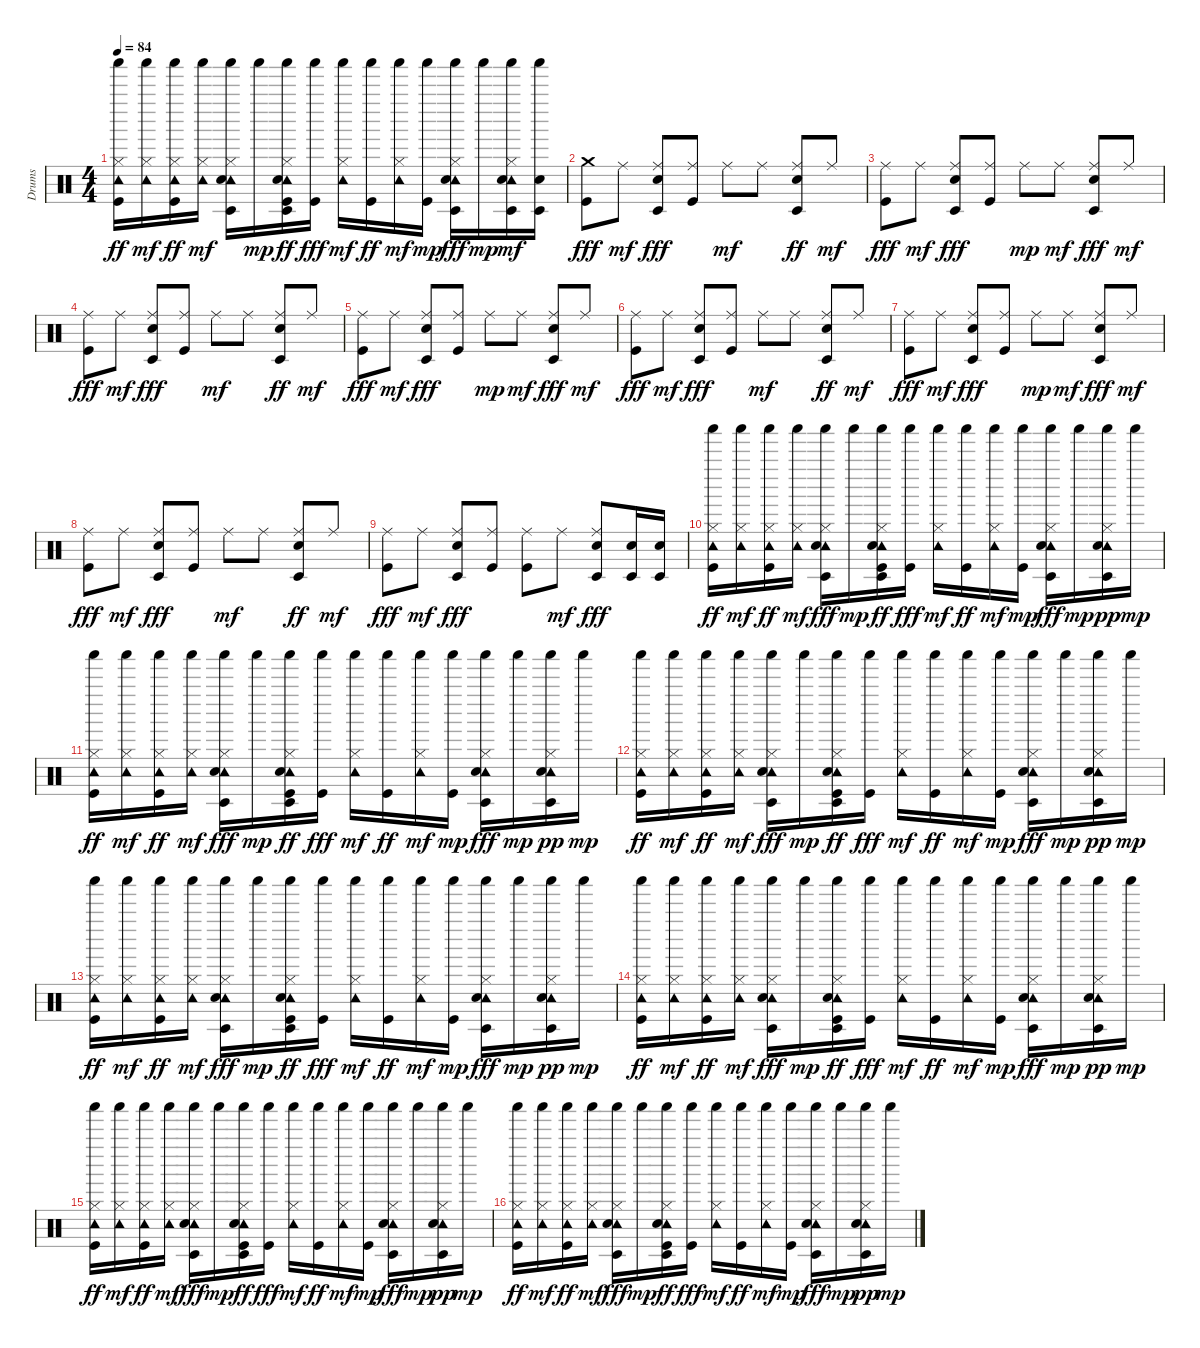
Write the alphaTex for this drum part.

\track ("Drums" "Drums") {instrument percussion}
\staff {score}
\articulation defaults
\ts (4 4)
\tempo 84
\clef neutral
\ks c
("Shaker (hit)" "Tambourine (hit)" "Hi-Hat (closed)" "Kick (hit)").16{dy ff} ("Shaker (hit)" "Tambourine (hit)" "Hi-Hat (closed)").16{dy mf} ("Shaker (hit)" "Tambourine (hit)" "Hi-Hat (closed)" "Kick (hit)").16{dy ff} ("Shaker (hit)" "Tambourine (hit)" "Hi-Hat (closed)").16{dy mf} ("Shaker (hit)" "Tambourine (hit)" "Hi-Hat (closed)" "Timbale low (hit)" "Snare (hit) 2").16 "Shaker (hit)".16{dy mp} ("Shaker (hit)" "Tambourine (hit)" "Hi-Hat (closed)" "Timbale low (hit)" "Snare (hit) 2" "Kick (hit)").16{dy ff} ("Shaker (hit)" "Kick (hit)").16{dy fff} ("Shaker (hit)" "Tambourine (hit)" "Hi-Hat (closed)").16{dy mf} ("Shaker (hit)" "Kick (hit)").16{dy ff} ("Shaker (hit)" "Tambourine (hit)" "Hi-Hat (closed)").16{dy mf} ("Shaker (hit)" "Kick (hit)").16{dy mp} ("Shaker (hit)" "Tambourine (hit)" "Hi-Hat (closed)" "Timbale low (hit)" "Snare (hit) 2").16{dy fff} "Shaker (hit)".16{dy mp} ("Shaker (hit)" "Tambourine (hit)" "Hi-Hat (closed)" "Timbale low (hit)" "Snare (hit) 2").16{dy mf} ("Shaker (hit)" "Timbale low (hit)" "Snare (hit) 2").16 |
("Crash medium (hit)" "Kick (hit)").8{dy fff} "Ride (middle)".8{dy mf} ("Ride (middle)" "Timbale low (hit)" "Snare (hit) 2").8{dy fff} ("Ride (middle)" "Kick (hit)").8 "Ride (middle)".8{dy mf} "Ride (middle)".8 ("Ride (middle)" "Timbale low (hit)" "Snare (hit) 2").8{dy ff} "Ride (middle)".8{dy mf} |
("Ride (middle)" "Kick (hit)").8{dy fff} "Ride (middle)".8{dy mf} ("Ride (middle)" "Timbale low (hit)" "Snare (hit) 2").8{dy fff} ("Ride (middle)" "Kick (hit)").8 "Ride (middle)".8{dy mp} "Ride (middle)".8{dy mf} ("Ride (middle)" "Timbale low (hit)" "Snare (hit) 2").8{dy fff} "Ride (middle)".8{dy mf} |
("Ride (middle)" "Kick (hit)").8{dy fff} "Ride (middle)".8{dy mf} ("Ride (middle)" "Timbale low (hit)" "Snare (hit) 2").8{dy fff} ("Ride (middle)" "Kick (hit)").8 "Ride (middle)".8{dy mf} "Ride (middle)".8 ("Ride (middle)" "Timbale low (hit)" "Snare (hit) 2").8{dy ff} "Ride (middle)".8{dy mf} |
("Ride (middle)" "Kick (hit)").8{dy fff} "Ride (middle)".8{dy mf} ("Ride (middle)" "Timbale low (hit)" "Snare (hit) 2").8{dy fff} ("Ride (middle)" "Kick (hit)").8 "Ride (middle)".8{dy mp} "Ride (middle)".8{dy mf} ("Ride (middle)" "Timbale low (hit)" "Snare (hit) 2").8{dy fff} "Ride (middle)".8{dy mf} |
("Ride (middle)" "Kick (hit)").8{dy fff} "Ride (middle)".8{dy mf} ("Ride (middle)" "Timbale low (hit)" "Snare (hit) 2").8{dy fff} ("Ride (middle)" "Kick (hit)").8 "Ride (middle)".8{dy mf} "Ride (middle)".8 ("Ride (middle)" "Timbale low (hit)" "Snare (hit) 2").8{dy ff} "Ride (middle)".8{dy mf} |
("Ride (middle)" "Kick (hit)").8{dy fff} "Ride (middle)".8{dy mf} ("Ride (middle)" "Timbale low (hit)" "Snare (hit) 2").8{dy fff} ("Ride (middle)" "Kick (hit)").8 "Ride (middle)".8{dy mp} "Ride (middle)".8{dy mf} ("Ride (middle)" "Timbale low (hit)" "Snare (hit) 2").8{dy fff} "Ride (middle)".8{dy mf} |
("Ride (middle)" "Kick (hit)").8{dy fff} "Ride (middle)".8{dy mf} ("Ride (middle)" "Timbale low (hit)" "Snare (hit) 2").8{dy fff} ("Ride (middle)" "Kick (hit)").8 "Ride (middle)".8{dy mf} "Ride (middle)".8 ("Ride (middle)" "Timbale low (hit)" "Snare (hit) 2").8{dy ff} "Ride (middle)".8{dy mf} |
("Ride (middle)" "Kick (hit)").8{dy fff} "Ride (middle)".8{dy mf} ("Ride (middle)" "Timbale low (hit)" "Snare (hit) 2").8{dy fff} ("Ride (middle)" "Kick (hit)").8 ("Ride (middle)" "Kick (hit)").8 "Ride (middle)".8{dy mf} ("Ride (middle)" "Timbale low (hit)" "Snare (hit) 2").8{dy fff} ("Timbale low (hit)" "Snare (hit) 2").16 ("Timbale low (hit)" "Snare (hit) 2").16 |
("Shaker (hit)" "Tambourine (hit)" "Hi-Hat (closed)" "Kick (hit)").16{dy ff} ("Shaker (hit)" "Tambourine (hit)" "Hi-Hat (closed)").16{dy mf} ("Shaker (hit)" "Tambourine (hit)" "Hi-Hat (closed)" "Kick (hit)").16{dy ff} ("Shaker (hit)" "Tambourine (hit)" "Hi-Hat (closed)").16{dy mf} ("Shaker (hit)" "Tambourine (hit)" "Hi-Hat (closed)" "Timbale low (hit)" "Snare (hit) 2").16{dy fff} "Shaker (hit)".16{dy mp} ("Shaker (hit)" "Tambourine (hit)" "Hi-Hat (closed)" "Timbale low (hit)" "Snare (hit) 2" "Kick (hit)").16{dy ff} ("Shaker (hit)" "Kick (hit)").16{dy fff} ("Shaker (hit)" "Tambourine (hit)" "Hi-Hat (closed)").16{dy mf} ("Shaker (hit)" "Kick (hit)").16{dy ff} ("Shaker (hit)" "Tambourine (hit)" "Hi-Hat (closed)").16{dy mf} ("Shaker (hit)" "Kick (hit)").16{dy mp} ("Shaker (hit)" "Tambourine (hit)" "Hi-Hat (closed)" "Timbale low (hit)" "Snare (hit) 2").16{dy fff} "Shaker (hit)".16{dy mp} ("Shaker (hit)" "Tambourine (hit)" "Hi-Hat (closed)" "Timbale low (hit)" "Snare (hit) 2").16{dy pp} "Shaker (hit)".16{dy mp} |
("Shaker (hit)" "Tambourine (hit)" "Hi-Hat (closed)" "Kick (hit)").16{dy ff} ("Shaker (hit)" "Tambourine (hit)" "Hi-Hat (closed)").16{dy mf} ("Shaker (hit)" "Tambourine (hit)" "Hi-Hat (closed)" "Kick (hit)").16{dy ff} ("Shaker (hit)" "Tambourine (hit)" "Hi-Hat (closed)").16{dy mf} ("Shaker (hit)" "Tambourine (hit)" "Hi-Hat (closed)" "Timbale low (hit)" "Snare (hit) 2").16{dy fff} "Shaker (hit)".16{dy mp} ("Shaker (hit)" "Tambourine (hit)" "Hi-Hat (closed)" "Timbale low (hit)" "Snare (hit) 2" "Kick (hit)").16{dy ff} ("Shaker (hit)" "Kick (hit)").16{dy fff} ("Shaker (hit)" "Tambourine (hit)" "Hi-Hat (closed)").16{dy mf} ("Shaker (hit)" "Kick (hit)").16{dy ff} ("Shaker (hit)" "Tambourine (hit)" "Hi-Hat (closed)").16{dy mf} ("Shaker (hit)" "Kick (hit)").16{dy mp} ("Shaker (hit)" "Tambourine (hit)" "Hi-Hat (closed)" "Timbale low (hit)" "Snare (hit) 2").16{dy fff} "Shaker (hit)".16{dy mp} ("Shaker (hit)" "Tambourine (hit)" "Hi-Hat (closed)" "Timbale low (hit)" "Snare (hit) 2").16{dy pp} "Shaker (hit)".16{dy mp} |
("Shaker (hit)" "Tambourine (hit)" "Hi-Hat (closed)" "Kick (hit)").16{dy ff} ("Shaker (hit)" "Tambourine (hit)" "Hi-Hat (closed)").16{dy mf} ("Shaker (hit)" "Tambourine (hit)" "Hi-Hat (closed)" "Kick (hit)").16{dy ff} ("Shaker (hit)" "Tambourine (hit)" "Hi-Hat (closed)").16{dy mf} ("Shaker (hit)" "Tambourine (hit)" "Hi-Hat (closed)" "Timbale low (hit)" "Snare (hit) 2").16{dy fff} "Shaker (hit)".16{dy mp} ("Shaker (hit)" "Tambourine (hit)" "Hi-Hat (closed)" "Timbale low (hit)" "Snare (hit) 2" "Kick (hit)").16{dy ff} ("Shaker (hit)" "Kick (hit)").16{dy fff} ("Shaker (hit)" "Tambourine (hit)" "Hi-Hat (closed)").16{dy mf} ("Shaker (hit)" "Kick (hit)").16{dy ff} ("Shaker (hit)" "Tambourine (hit)" "Hi-Hat (closed)").16{dy mf} ("Shaker (hit)" "Kick (hit)").16{dy mp} ("Shaker (hit)" "Tambourine (hit)" "Hi-Hat (closed)" "Timbale low (hit)" "Snare (hit) 2").16{dy fff} "Shaker (hit)".16{dy mp} ("Shaker (hit)" "Tambourine (hit)" "Hi-Hat (closed)" "Timbale low (hit)" "Snare (hit) 2").16{dy pp} "Shaker (hit)".16{dy mp} |
("Shaker (hit)" "Tambourine (hit)" "Hi-Hat (closed)" "Kick (hit)").16{dy ff} ("Shaker (hit)" "Tambourine (hit)" "Hi-Hat (closed)").16{dy mf} ("Shaker (hit)" "Tambourine (hit)" "Hi-Hat (closed)" "Kick (hit)").16{dy ff} ("Shaker (hit)" "Tambourine (hit)" "Hi-Hat (closed)").16{dy mf} ("Shaker (hit)" "Tambourine (hit)" "Hi-Hat (closed)" "Timbale low (hit)" "Snare (hit) 2").16{dy fff} "Shaker (hit)".16{dy mp} ("Shaker (hit)" "Tambourine (hit)" "Hi-Hat (closed)" "Timbale low (hit)" "Snare (hit) 2" "Kick (hit)").16{dy ff} ("Shaker (hit)" "Kick (hit)").16{dy fff} ("Shaker (hit)" "Tambourine (hit)" "Hi-Hat (closed)").16{dy mf} ("Shaker (hit)" "Kick (hit)").16{dy ff} ("Shaker (hit)" "Tambourine (hit)" "Hi-Hat (closed)").16{dy mf} ("Shaker (hit)" "Kick (hit)").16{dy mp} ("Shaker (hit)" "Tambourine (hit)" "Hi-Hat (closed)" "Timbale low (hit)" "Snare (hit) 2").16{dy fff} "Shaker (hit)".16{dy mp} ("Shaker (hit)" "Tambourine (hit)" "Hi-Hat (closed)" "Timbale low (hit)" "Snare (hit) 2").16{dy pp} "Shaker (hit)".16{dy mp} |
("Shaker (hit)" "Tambourine (hit)" "Hi-Hat (closed)" "Kick (hit)").16{dy ff} ("Shaker (hit)" "Tambourine (hit)" "Hi-Hat (closed)").16{dy mf} ("Shaker (hit)" "Tambourine (hit)" "Hi-Hat (closed)" "Kick (hit)").16{dy ff} ("Shaker (hit)" "Tambourine (hit)" "Hi-Hat (closed)").16{dy mf} ("Shaker (hit)" "Tambourine (hit)" "Hi-Hat (closed)" "Timbale low (hit)" "Snare (hit) 2").16{dy fff} "Shaker (hit)".16{dy mp} ("Shaker (hit)" "Tambourine (hit)" "Hi-Hat (closed)" "Timbale low (hit)" "Snare (hit) 2" "Kick (hit)").16{dy ff} ("Shaker (hit)" "Kick (hit)").16{dy fff} ("Shaker (hit)" "Tambourine (hit)" "Hi-Hat (closed)").16{dy mf} ("Shaker (hit)" "Kick (hit)").16{dy ff} ("Shaker (hit)" "Tambourine (hit)" "Hi-Hat (closed)").16{dy mf} ("Shaker (hit)" "Kick (hit)").16{dy mp} ("Shaker (hit)" "Tambourine (hit)" "Hi-Hat (closed)" "Timbale low (hit)" "Snare (hit) 2").16{dy fff} "Shaker (hit)".16{dy mp} ("Shaker (hit)" "Tambourine (hit)" "Hi-Hat (closed)" "Timbale low (hit)" "Snare (hit) 2").16{dy pp} "Shaker (hit)".16{dy mp} |
("Shaker (hit)" "Tambourine (hit)" "Hi-Hat (closed)" "Kick (hit)").16{dy ff} ("Shaker (hit)" "Tambourine (hit)" "Hi-Hat (closed)").16{dy mf} ("Shaker (hit)" "Tambourine (hit)" "Hi-Hat (closed)" "Kick (hit)").16{dy ff} ("Shaker (hit)" "Tambourine (hit)" "Hi-Hat (closed)").16{dy mf} ("Shaker (hit)" "Tambourine (hit)" "Hi-Hat (closed)" "Timbale low (hit)" "Snare (hit) 2").16{dy fff} "Shaker (hit)".16{dy mp} ("Shaker (hit)" "Tambourine (hit)" "Hi-Hat (closed)" "Timbale low (hit)" "Snare (hit) 2" "Kick (hit)").16{dy ff} ("Shaker (hit)" "Kick (hit)").16{dy fff} ("Shaker (hit)" "Tambourine (hit)" "Hi-Hat (closed)").16{dy mf} ("Shaker (hit)" "Kick (hit)").16{dy ff} ("Shaker (hit)" "Tambourine (hit)" "Hi-Hat (closed)").16{dy mf} ("Shaker (hit)" "Kick (hit)").16{dy mp} ("Shaker (hit)" "Tambourine (hit)" "Hi-Hat (closed)" "Timbale low (hit)" "Snare (hit) 2").16{dy fff} "Shaker (hit)".16{dy mp} ("Shaker (hit)" "Tambourine (hit)" "Hi-Hat (closed)" "Timbale low (hit)" "Snare (hit) 2").16{dy pp} "Shaker (hit)".16{dy mp} |
("Shaker (hit)" "Tambourine (hit)" "Hi-Hat (closed)" "Kick (hit)").16{dy ff} ("Shaker (hit)" "Tambourine (hit)" "Hi-Hat (closed)").16{dy mf} ("Shaker (hit)" "Tambourine (hit)" "Hi-Hat (closed)" "Kick (hit)").16{dy ff} ("Shaker (hit)" "Tambourine (hit)" "Hi-Hat (closed)").16{dy mf} ("Shaker (hit)" "Tambourine (hit)" "Hi-Hat (closed)" "Timbale low (hit)" "Snare (hit) 2").16{dy fff} "Shaker (hit)".16{dy mp} ("Shaker (hit)" "Tambourine (hit)" "Hi-Hat (closed)" "Timbale low (hit)" "Snare (hit) 2" "Kick (hit)").16{dy ff} ("Shaker (hit)" "Kick (hit)").16{dy fff} ("Shaker (hit)" "Tambourine (hit)" "Hi-Hat (closed)").16{dy mf} ("Shaker (hit)" "Kick (hit)").16{dy ff} ("Shaker (hit)" "Tambourine (hit)" "Hi-Hat (closed)").16{dy mf} ("Shaker (hit)" "Kick (hit)").16{dy mp} ("Shaker (hit)" "Tambourine (hit)" "Hi-Hat (closed)" "Timbale low (hit)" "Snare (hit) 2").16{dy fff} "Shaker (hit)".16{dy mp} ("Shaker (hit)" "Tambourine (hit)" "Hi-Hat (closed)" "Timbale low (hit)" "Snare (hit) 2").16{dy pp} "Shaker (hit)".16{dy mp}
